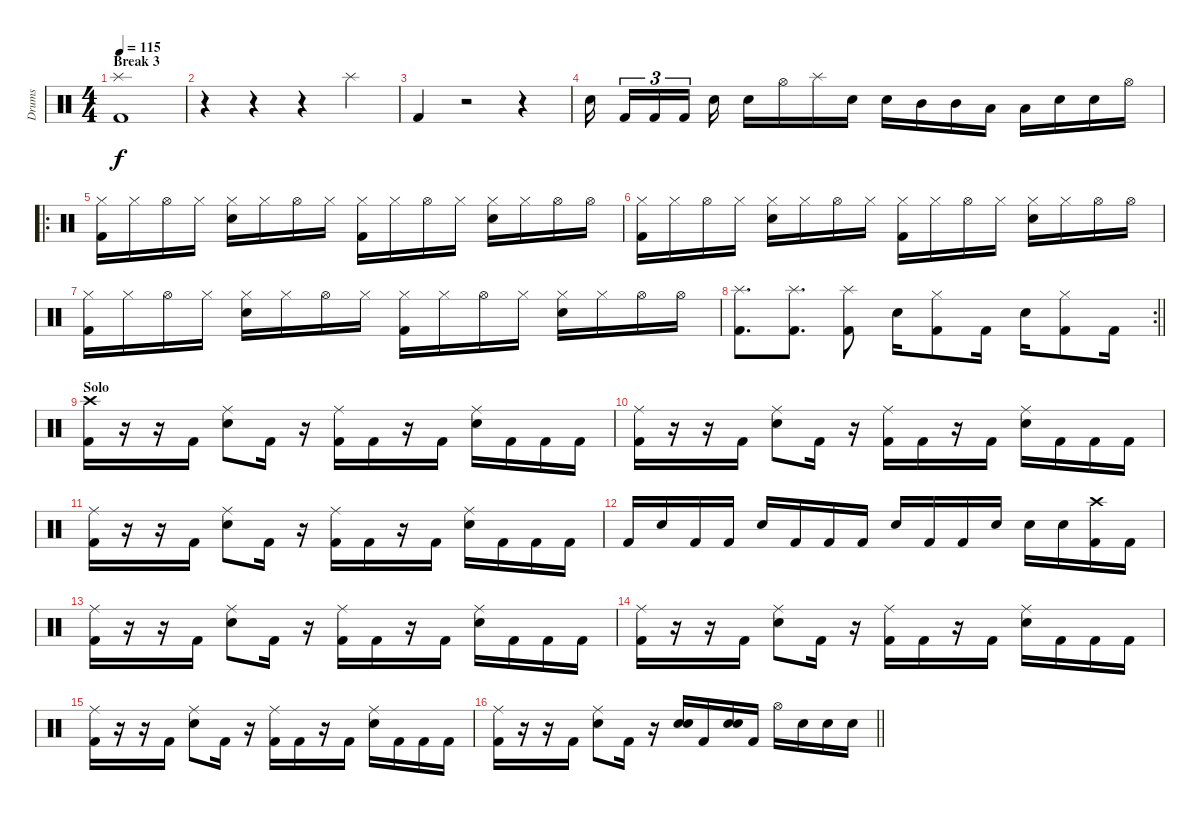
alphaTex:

\track ("Drums" "Drums") {instrument percussion}
\staff {score}
\articulation defaults
\ts (4 4)
\section ("" "Break 3")
\tempo 115
\clef neutral
\ks c
("Splash (hit)" "Kick (hit) 2").1{dy f} |
r.4 r.4 r.4 "Splash (hit)".4 |
"Kick (hit) 2".4 r.2 r.4 |
"Electric Snare (hit)".16{beam splitsecondary} "Kick (hit) 2".16{tu (3 2)} "Kick (hit) 2".16{tu (3 2)} "Kick (hit) 2".16{tu (3 2) beam splitsecondary} "Electric Snare (hit)".16 "Electric Snare (hit)".16 "Hi-Hat (open)".16 "Splash (hit)".16 "Electric Snare (hit)".16 "Electric Snare (hit)".16 "Mid Tom (hit)".16 "Mid Tom (hit)".16 "Low Tom (hit)".16 "Low Tom (hit)".16 "Electric Snare (hit)".16 "Electric Snare (hit)".16 "Hi-Hat (open)".16 |
\ro
("Hi-Hat (closed)" "Kick (hit) 2").16 "Hi-Hat (closed)".16 "Hi-Hat (open)".16 "Hi-Hat (closed)".16 ("Hi-Hat (closed)" "Electric Snare (hit)").16 "Hi-Hat (closed)".16 "Hi-Hat (open)".16 "Hi-Hat (closed)".16 ("Hi-Hat (closed)" "Kick (hit) 2").16 "Hi-Hat (closed)".16 "Hi-Hat (open)".16 "Hi-Hat (closed)".16 ("Hi-Hat (closed)" "Electric Snare (hit)").16 "Hi-Hat (closed)".16 "Hi-Hat (open)".16 "Hi-Hat (open)".16 |
("Hi-Hat (closed)" "Kick (hit) 2").16 "Hi-Hat (closed)".16 "Hi-Hat (open)".16 "Hi-Hat (closed)".16 ("Hi-Hat (closed)" "Electric Snare (hit)").16 "Hi-Hat (closed)".16 "Hi-Hat (open)".16 "Hi-Hat (closed)".16 ("Hi-Hat (closed)" "Kick (hit) 2").16 "Hi-Hat (closed)".16 "Hi-Hat (open)".16 "Hi-Hat (closed)".16 ("Hi-Hat (closed)" "Electric Snare (hit)").16 "Hi-Hat (closed)".16 "Hi-Hat (open)".16 "Hi-Hat (open)".16 |
("Hi-Hat (closed)" "Kick (hit) 2").16 "Hi-Hat (closed)".16 "Hi-Hat (open)".16 "Hi-Hat (closed)".16 ("Hi-Hat (closed)" "Electric Snare (hit)").16 "Hi-Hat (closed)".16 "Hi-Hat (open)".16 "Hi-Hat (closed)".16 ("Hi-Hat (closed)" "Kick (hit) 2").16 "Hi-Hat (closed)".16 "Hi-Hat (open)".16 "Hi-Hat (closed)".16 ("Hi-Hat (closed)" "Electric Snare (hit)").16 "Hi-Hat (closed)".16 "Hi-Hat (open)".16 "Hi-Hat (open)".16 |
\rc 2
\barLineRight lightlight
("Splash (hit)" "Kick (hit) 2").8{d} ("Splash (hit)" "Kick (hit) 2").8{d} ("Splash (hit)" "Kick (hit) 2").8 "Electric Snare (hit)".16 ("Hi-Hat (closed)" "Kick (hit) 2").8 "Kick (hit) 2".16 "Electric Snare (hit)".16 ("Hi-Hat (closed)" "Kick (hit) 2").8 "Kick (hit) 2".16 |
\section ("" "Solo")
("Crash high (hit)" "Kick (hit) 2").16 r.16 r.16 "Kick (hit) 2".16 ("Ride (middle)" "Electric Snare (hit)").8 "Kick (hit) 2".16 r.16 ("Ride (middle)" "Kick (hit) 2").16 "Kick (hit) 2".16 r.16 "Kick (hit) 2".16 ("Ride (middle)" "Electric Snare (hit)").16 "Kick (hit) 2".16 "Kick (hit) 2".16 "Kick (hit) 2".16 |
("Ride (middle)" "Kick (hit) 2").16 r.16 r.16 "Kick (hit) 2".16 ("Ride (middle)" "Electric Snare (hit)").8 "Kick (hit) 2".16 r.16 ("Ride (middle)" "Kick (hit) 2").16 "Kick (hit) 2".16 r.16 "Kick (hit) 2".16 ("Ride (middle)" "Electric Snare (hit)").16 "Kick (hit) 2".16 "Kick (hit) 2".16 "Kick (hit) 2".16 |
("Ride (middle)" "Kick (hit) 2").16 r.16 r.16 "Kick (hit) 2".16 ("Ride (middle)" "Electric Snare (hit)").8 "Kick (hit) 2".16 r.16 ("Ride (middle)" "Kick (hit) 2").16 "Kick (hit) 2".16 r.16 "Kick (hit) 2".16 ("Ride (middle)" "Electric Snare (hit)").16 "Kick (hit) 2".16 "Kick (hit) 2".16 "Kick (hit) 2".16 |
"Kick (hit) 2".16 "Electric Snare (hit)".16 "Kick (hit) 2".16 "Kick (hit) 2".16 "Electric Snare (hit)".16 "Kick (hit) 2".16 "Kick (hit) 2".16 "Kick (hit) 2".16 "Electric Snare (hit)".16 "Kick (hit) 2".16 "Kick (hit) 2".16 "Electric Snare (hit)".16 "Electric Snare (hit)".16 "Electric Snare (hit)".16 ("Crash high (hit)" "Kick (hit) 2").16 "Kick (hit) 2".16 |
("Ride (middle)" "Kick (hit) 2").16 r.16 r.16 "Kick (hit) 2".16 ("Ride (middle)" "Electric Snare (hit)").8 "Kick (hit) 2".16 r.16 ("Ride (middle)" "Kick (hit) 2").16 "Kick (hit) 2".16 r.16 "Kick (hit) 2".16 ("Ride (middle)" "Electric Snare (hit)").16 "Kick (hit) 2".16 "Kick (hit) 2".16 "Kick (hit) 2".16 |
("Ride (middle)" "Kick (hit) 2").16 r.16 r.16 "Kick (hit) 2".16 ("Ride (middle)" "Electric Snare (hit)").8 "Kick (hit) 2".16 r.16 ("Ride (middle)" "Kick (hit) 2").16 "Kick (hit) 2".16 r.16 "Kick (hit) 2".16 ("Ride (middle)" "Electric Snare (hit)").16 "Kick (hit) 2".16 "Kick (hit) 2".16 "Kick (hit) 2".16 |
("Ride (middle)" "Kick (hit) 2").16 r.16 r.16 "Kick (hit) 2".16 ("Ride (middle)" "Electric Snare (hit)").8 "Kick (hit) 2".16 r.16 ("Ride (middle)" "Kick (hit) 2").16 "Kick (hit) 2".16 r.16 "Kick (hit) 2".16 ("Ride (middle)" "Electric Snare (hit)").16 "Kick (hit) 2".16 "Kick (hit) 2".16 "Kick (hit) 2".16 |
\barLineRight lightlight
("Ride (middle)" "Kick (hit) 2").16 r.16 r.16 "Kick (hit) 2".16 ("Ride (middle)" "Electric Snare (hit)").8 "Kick (hit) 2".16 r.16 ("Electric Snare (hit)" "Electric Snare (hit)").16{bd 240} "Kick (hit) 2".16 ("Electric Snare (hit)" "Electric Snare (hit)").16{bd 240} "Kick (hit) 2".16 "Hi-Hat (open)".16 "Electric Snare (hit)".16 "Electric Snare (hit)".16 "Electric Snare (hit)".16
